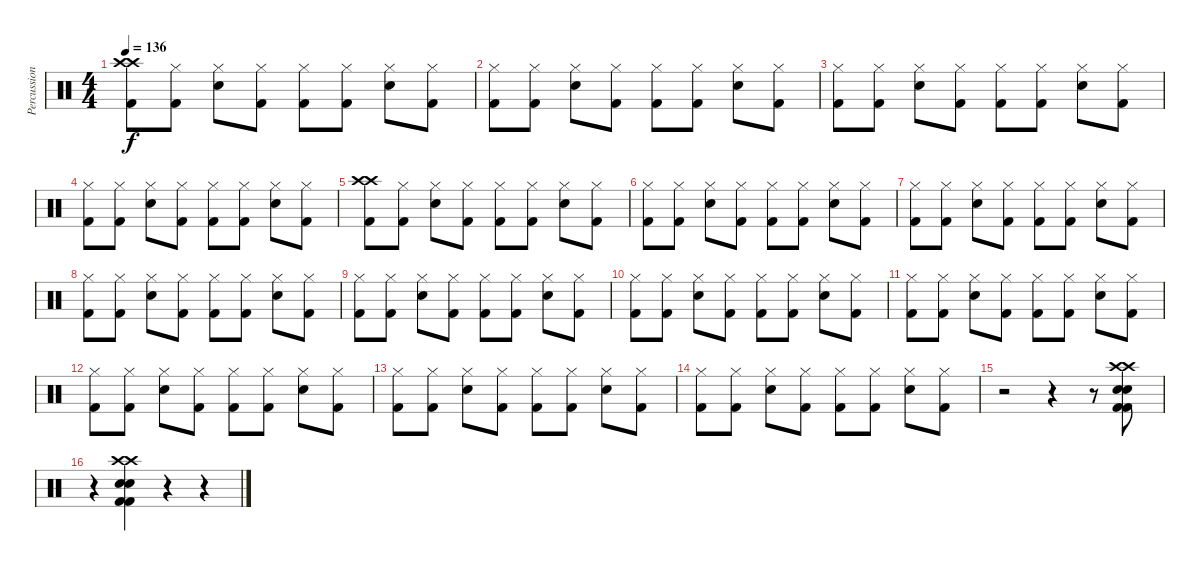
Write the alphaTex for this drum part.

\track ("Percussion" "Percussion") {instrument percussion}
\staff {score}
\articulation defaults
\ts (4 4)
\tempo 136
\clef neutral
\ks c
("Crash high (hit)" "Crash high (hit)" "Kick (hit) 2").8{dy f} ("Hi-Hat (closed)" "Kick (hit) 2").8 ("Hi-Hat (closed)" "Electric Snare (hit)").8 ("Hi-Hat (closed)" "Kick (hit) 2").8 ("Hi-Hat (closed)" "Kick (hit) 2").8 ("Hi-Hat (closed)" "Kick (hit) 2").8 ("Hi-Hat (closed)" "Electric Snare (hit)").8 ("Hi-Hat (closed)" "Kick (hit) 2").8 |
("Hi-Hat (closed)" "Kick (hit) 2").8 ("Hi-Hat (closed)" "Kick (hit) 2").8 ("Hi-Hat (closed)" "Electric Snare (hit)").8 ("Hi-Hat (closed)" "Kick (hit) 2").8 ("Hi-Hat (closed)" "Kick (hit) 2").8 ("Hi-Hat (closed)" "Kick (hit) 2").8 ("Hi-Hat (closed)" "Electric Snare (hit)").8 ("Hi-Hat (closed)" "Kick (hit) 2").8 |
("Hi-Hat (closed)" "Kick (hit) 2").8 ("Hi-Hat (closed)" "Kick (hit) 2").8 ("Hi-Hat (closed)" "Electric Snare (hit)").8 ("Hi-Hat (closed)" "Kick (hit) 2").8 ("Hi-Hat (closed)" "Kick (hit) 2").8 ("Hi-Hat (closed)" "Kick (hit) 2").8 ("Hi-Hat (closed)" "Electric Snare (hit)").8 ("Hi-Hat (closed)" "Kick (hit) 2").8 |
("Hi-Hat (closed)" "Kick (hit) 2").8 ("Hi-Hat (closed)" "Kick (hit) 2").8 ("Hi-Hat (closed)" "Electric Snare (hit)").8 ("Hi-Hat (closed)" "Kick (hit) 2").8 ("Hi-Hat (closed)" "Kick (hit) 2").8 ("Hi-Hat (closed)" "Kick (hit) 2").8 ("Hi-Hat (closed)" "Electric Snare (hit)").8 ("Hi-Hat (closed)" "Kick (hit) 2").8 |
("Crash high (hit)" "Crash high (hit)" "Kick (hit) 2").8 ("Hi-Hat (closed)" "Kick (hit) 2").8 ("Hi-Hat (closed)" "Electric Snare (hit)").8 ("Hi-Hat (closed)" "Kick (hit) 2").8 ("Hi-Hat (closed)" "Kick (hit) 2").8 ("Hi-Hat (closed)" "Kick (hit) 2").8 ("Hi-Hat (closed)" "Electric Snare (hit)").8 ("Hi-Hat (closed)" "Kick (hit) 2").8 |
("Hi-Hat (closed)" "Kick (hit) 2").8 ("Hi-Hat (closed)" "Kick (hit) 2").8 ("Hi-Hat (closed)" "Electric Snare (hit)").8 ("Hi-Hat (closed)" "Kick (hit) 2").8 ("Hi-Hat (closed)" "Kick (hit) 2").8 ("Hi-Hat (closed)" "Kick (hit) 2").8 ("Hi-Hat (closed)" "Electric Snare (hit)").8 ("Hi-Hat (closed)" "Kick (hit) 2").8 |
("Hi-Hat (closed)" "Kick (hit) 2").8 ("Hi-Hat (closed)" "Kick (hit) 2").8 ("Hi-Hat (closed)" "Electric Snare (hit)").8 ("Hi-Hat (closed)" "Kick (hit) 2").8 ("Hi-Hat (closed)" "Kick (hit) 2").8 ("Hi-Hat (closed)" "Kick (hit) 2").8 ("Hi-Hat (closed)" "Electric Snare (hit)").8 ("Hi-Hat (closed)" "Kick (hit) 2").8 |
("Hi-Hat (closed)" "Kick (hit) 2").8 ("Hi-Hat (closed)" "Kick (hit) 2").8 ("Hi-Hat (closed)" "Electric Snare (hit)").8 ("Hi-Hat (closed)" "Kick (hit) 2").8 ("Hi-Hat (closed)" "Kick (hit) 2").8 ("Hi-Hat (closed)" "Kick (hit) 2").8 ("Hi-Hat (closed)" "Electric Snare (hit)").8 ("Hi-Hat (closed)" "Kick (hit) 2").8 |
("Hi-Hat (closed)" "Kick (hit) 2").8 ("Hi-Hat (closed)" "Kick (hit) 2").8 ("Hi-Hat (closed)" "Electric Snare (hit)").8 ("Hi-Hat (closed)" "Kick (hit) 2").8 ("Hi-Hat (closed)" "Kick (hit) 2").8 ("Hi-Hat (closed)" "Kick (hit) 2").8 ("Hi-Hat (closed)" "Electric Snare (hit)").8 ("Hi-Hat (closed)" "Kick (hit) 2").8 |
("Hi-Hat (closed)" "Kick (hit) 2").8 ("Hi-Hat (closed)" "Kick (hit) 2").8 ("Hi-Hat (closed)" "Electric Snare (hit)").8 ("Hi-Hat (closed)" "Kick (hit) 2").8 ("Hi-Hat (closed)" "Kick (hit) 2").8 ("Hi-Hat (closed)" "Kick (hit) 2").8 ("Hi-Hat (closed)" "Electric Snare (hit)").8 ("Hi-Hat (closed)" "Kick (hit) 2").8 |
("Hi-Hat (closed)" "Kick (hit) 2").8 ("Hi-Hat (closed)" "Kick (hit) 2").8 ("Hi-Hat (closed)" "Electric Snare (hit)").8 ("Hi-Hat (closed)" "Kick (hit) 2").8 ("Hi-Hat (closed)" "Kick (hit) 2").8 ("Hi-Hat (closed)" "Kick (hit) 2").8 ("Hi-Hat (closed)" "Electric Snare (hit)").8 ("Hi-Hat (closed)" "Kick (hit) 2").8 |
("Hi-Hat (closed)" "Kick (hit) 2").8 ("Hi-Hat (closed)" "Kick (hit) 2").8 ("Hi-Hat (closed)" "Electric Snare (hit)").8 ("Hi-Hat (closed)" "Kick (hit) 2").8 ("Hi-Hat (closed)" "Kick (hit) 2").8 ("Hi-Hat (closed)" "Kick (hit) 2").8 ("Hi-Hat (closed)" "Electric Snare (hit)").8 ("Hi-Hat (closed)" "Kick (hit) 2").8 |
("Hi-Hat (closed)" "Kick (hit) 2").8 ("Hi-Hat (closed)" "Kick (hit) 2").8 ("Hi-Hat (closed)" "Electric Snare (hit)").8 ("Hi-Hat (closed)" "Kick (hit) 2").8 ("Hi-Hat (closed)" "Kick (hit) 2").8 ("Hi-Hat (closed)" "Kick (hit) 2").8 ("Hi-Hat (closed)" "Electric Snare (hit)").8 ("Hi-Hat (closed)" "Kick (hit) 2").8 |
("Hi-Hat (closed)" "Kick (hit) 2").8 ("Hi-Hat (closed)" "Kick (hit) 2").8 ("Hi-Hat (closed)" "Electric Snare (hit)").8 ("Hi-Hat (closed)" "Kick (hit) 2").8 ("Hi-Hat (closed)" "Kick (hit) 2").8 ("Hi-Hat (closed)" "Kick (hit) 2").8 ("Hi-Hat (closed)" "Electric Snare (hit)").8 ("Hi-Hat (closed)" "Kick (hit) 2").8 |
r.2 r.4 r.8 ("Crash high (hit)" "Crash high (hit)" "Snare (hit) 2" "Snare (hit) 2" "Kick (hit) 2" "Kick (hit) 2").8 |
r.4 ("Crash high (hit)" "Crash high (hit)" "Snare (hit) 2" "Snare (hit) 2" "Kick (hit) 2" "Kick (hit) 2").4 r.4 r.4
